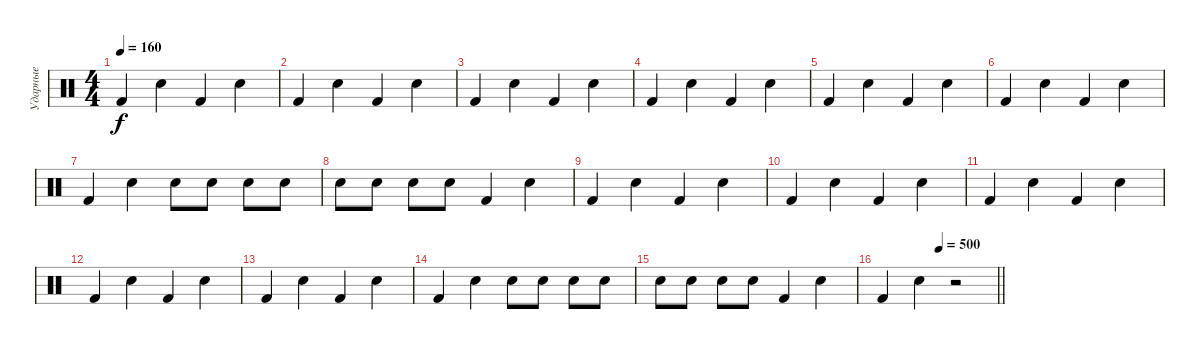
\track ("Ударные" "Ударные") {instrument percussion}
\staff {score}
\articulation defaults
\ts (4 4)
\tempo 160
\clef neutral
\ks c "Kick (hit) 2".4{dy f} "Snare (hit) 2".4 "Kick (hit) 2".4 "Snare (hit) 2".4
|
"Kick (hit) 2".4 "Snare (hit) 2".4 "Kick (hit) 2".4 "Snare (hit) 2".4 |
"Kick (hit) 2".4 "Snare (hit) 2".4 "Kick (hit) 2".4 "Snare (hit) 2".4 |
"Kick (hit) 2".4 "Snare (hit) 2".4 "Kick (hit) 2".4 "Snare (hit) 2".4 |
"Kick (hit) 2".4 "Snare (hit) 2".4 "Kick (hit) 2".4 "Snare (hit) 2".4 |
"Kick (hit) 2".4 "Snare (hit) 2".4 "Kick (hit) 2".4 "Snare (hit) 2".4 |
"Kick (hit) 2".4 "Snare (hit) 2".4 "Snare (hit) 2".8 "Snare (hit) 2".8 "Snare (hit) 2".8 "Snare (hit) 2".8 |
"Snare (hit) 2".8 "Snare (hit) 2".8 "Snare (hit) 2".8 "Snare (hit) 2".8 "Kick (hit) 2".4 "Snare (hit) 2".4 |
"Kick (hit) 2".4 "Snare (hit) 2".4 "Kick (hit) 2".4 "Snare (hit) 2".4 |
"Kick (hit) 2".4 "Snare (hit) 2".4 "Kick (hit) 2".4 "Snare (hit) 2".4 |
"Kick (hit) 2".4 "Snare (hit) 2".4 "Kick (hit) 2".4 "Snare (hit) 2".4 |
"Kick (hit) 2".4 "Snare (hit) 2".4 "Kick (hit) 2".4 "Snare (hit) 2".4 |
"Kick (hit) 2".4 "Snare (hit) 2".4 "Kick (hit) 2".4 "Snare (hit) 2".4 |
"Kick (hit) 2".4 "Snare (hit) 2".4 "Snare (hit) 2".8 "Snare (hit) 2".8 "Snare (hit) 2".8 "Snare (hit) 2".8 |
"Snare (hit) 2".8 "Snare (hit) 2".8 "Snare (hit) 2".8 "Snare (hit) 2".8 "Kick (hit) 2".4 "Snare (hit) 2".4 |
\tempo (500 0.5)
\barLineRight lightlight "Kick (hit) 2".4 "Snare (hit) 2".4
r.2
